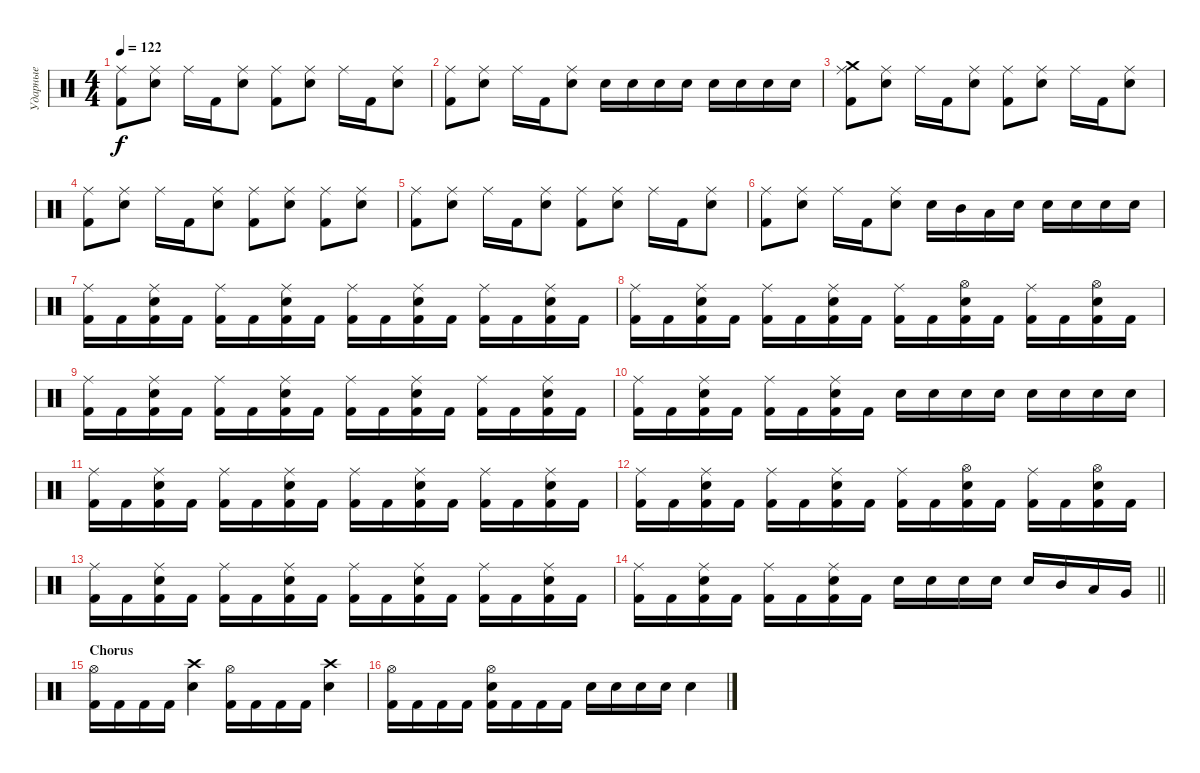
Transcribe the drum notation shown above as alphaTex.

\track ("Ударные" "Ударные") {instrument percussion}
\staff {score}
\articulation defaults
\ts (4 4)
\tempo 122
\clef neutral
\ks c
("Kick (hit) 2" "Ride (middle)").8{dy f} ("Electric Snare (hit)" "Ride (middle)").8 "Ride (middle)".16 "Kick (hit) 2".16 ("Electric Snare (hit)" "Ride (middle)").8 ("Kick (hit) 2" "Ride (middle)").8 ("Electric Snare (hit)" "Ride (middle)").8 "Ride (middle)".16 "Kick (hit) 2".16 ("Electric Snare (hit)" "Ride (middle)").8 |
("Kick (hit) 2" "Ride (middle)").8 ("Electric Snare (hit)" "Ride (middle)").8 "Ride (middle)".16 "Kick (hit) 2".16 ("Electric Snare (hit)" "Ride (middle)").8 "Electric Snare (hit)".16 "Electric Snare (hit)".16 "Electric Snare (hit)".16 "Electric Snare (hit)".16 "Electric Snare (hit)".16 "Electric Snare (hit)".16 "Electric Snare (hit)".16 "Electric Snare (hit)".16 |
("Kick (hit) 2" "Ride (middle)" "Crash medium (hit)").8 ("Electric Snare (hit)" "Ride (middle)").8 "Ride (middle)".16 "Kick (hit) 2".16 ("Electric Snare (hit)" "Ride (middle)").8 ("Kick (hit) 2" "Ride (middle)").8 ("Electric Snare (hit)" "Ride (middle)").8 "Ride (middle)".16 "Kick (hit) 2".16 ("Electric Snare (hit)" "Ride (middle)").8 |
("Kick (hit) 2" "Ride (middle)").8 ("Electric Snare (hit)" "Ride (middle)").8 "Ride (middle)".16 "Kick (hit) 2".16 ("Electric Snare (hit)" "Ride (middle)").8 ("Kick (hit) 2" "Ride (middle)").8 ("Electric Snare (hit)" "Ride (middle)").8 ("Kick (hit) 2" "Ride (middle)").8 ("Electric Snare (hit)" "Ride (middle)").8 |
("Kick (hit) 2" "Ride (middle)").8 ("Electric Snare (hit)" "Ride (middle)").8 "Ride (middle)".16 "Kick (hit) 2".16 ("Electric Snare (hit)" "Ride (middle)").8 ("Kick (hit) 2" "Ride (middle)").8 ("Electric Snare (hit)" "Ride (middle)").8 "Ride (middle)".16 "Kick (hit) 2".16 ("Electric Snare (hit)" "Ride (middle)").8 |
("Kick (hit) 2" "Ride (middle)").8 ("Electric Snare (hit)" "Ride (middle)").8 "Ride (middle)".16 "Kick (hit) 2".16 ("Electric Snare (hit)" "Ride (middle)").8 "Electric Snare (hit)".16 "Mid Tom (hit)".16 "Low Tom (hit)".16 "Electric Snare (hit)".16 "Electric Snare (hit)".16 "Electric Snare (hit)".16 "Electric Snare (hit)".16 "Electric Snare (hit)".16 |
("Kick (hit) 2" "Ride (middle)").16 "Kick (hit) 2".16 ("Kick (hit) 2" "Electric Snare (hit)" "Ride (middle)").16 "Kick (hit) 2".16 ("Kick (hit) 2" "Ride (middle)").16 "Kick (hit) 2".16 ("Kick (hit) 2" "Electric Snare (hit)" "Ride (middle)").16 "Kick (hit) 2".16 ("Kick (hit) 2" "Ride (middle)").16 "Kick (hit) 2".16 ("Kick (hit) 2" "Electric Snare (hit)" "Ride (middle)").16 "Kick (hit) 2".16 ("Kick (hit) 2" "Ride (middle)").16 "Kick (hit) 2".16 ("Kick (hit) 2" "Electric Snare (hit)" "Ride (middle)").16 "Kick (hit) 2".16 |
("Kick (hit) 2" "Ride (middle)").16 "Kick (hit) 2".16 ("Kick (hit) 2" "Electric Snare (hit)" "Ride (middle)").16 "Kick (hit) 2".16 ("Kick (hit) 2" "Ride (middle)").16 "Kick (hit) 2".16 ("Kick (hit) 2" "Electric Snare (hit)" "Ride (middle)").16 "Kick (hit) 2".16 ("Kick (hit) 2" "Ride (middle)").16 "Kick (hit) 2".16 ("Kick (hit) 2" "Electric Snare (hit)" "Hi-Hat (open)").16 "Kick (hit) 2".16 ("Kick (hit) 2" "Ride (middle)").16 "Kick (hit) 2".16 ("Kick (hit) 2" "Electric Snare (hit)" "Hi-Hat (open)").16 "Kick (hit) 2".16 |
("Kick (hit) 2" "Ride (middle)").16 "Kick (hit) 2".16 ("Kick (hit) 2" "Electric Snare (hit)" "Ride (middle)").16 "Kick (hit) 2".16 ("Kick (hit) 2" "Ride (middle)").16 "Kick (hit) 2".16 ("Kick (hit) 2" "Electric Snare (hit)" "Ride (middle)").16 "Kick (hit) 2".16 ("Kick (hit) 2" "Ride (middle)").16 "Kick (hit) 2".16 ("Kick (hit) 2" "Electric Snare (hit)" "Ride (middle)").16 "Kick (hit) 2".16 ("Kick (hit) 2" "Ride (middle)").16 "Kick (hit) 2".16 ("Kick (hit) 2" "Electric Snare (hit)" "Ride (middle)").16 "Kick (hit) 2".16 |
("Kick (hit) 2" "Ride (middle)").16 "Kick (hit) 2".16 ("Kick (hit) 2" "Electric Snare (hit)" "Ride (middle)").16 "Kick (hit) 2".16 ("Kick (hit) 2" "Ride (middle)").16 "Kick (hit) 2".16 ("Kick (hit) 2" "Electric Snare (hit)" "Ride (middle)").16 "Kick (hit) 2".16 "Electric Snare (hit)".16 "Electric Snare (hit)".16 "Electric Snare (hit)".16 "Electric Snare (hit)".16 "Electric Snare (hit)".16 "Electric Snare (hit)".16 "Electric Snare (hit)".16 "Electric Snare (hit)".16 |
("Kick (hit) 2" "Ride (middle)").16 "Kick (hit) 2".16 ("Kick (hit) 2" "Electric Snare (hit)" "Ride (middle)").16 "Kick (hit) 2".16 ("Kick (hit) 2" "Ride (middle)").16 "Kick (hit) 2".16 ("Kick (hit) 2" "Electric Snare (hit)" "Ride (middle)").16 "Kick (hit) 2".16 ("Kick (hit) 2" "Ride (middle)").16 "Kick (hit) 2".16 ("Kick (hit) 2" "Electric Snare (hit)" "Ride (middle)").16 "Kick (hit) 2".16 ("Kick (hit) 2" "Ride (middle)").16 "Kick (hit) 2".16 ("Kick (hit) 2" "Electric Snare (hit)" "Ride (middle)").16 "Kick (hit) 2".16 |
("Kick (hit) 2" "Ride (middle)").16 "Kick (hit) 2".16 ("Kick (hit) 2" "Electric Snare (hit)" "Ride (middle)").16 "Kick (hit) 2".16 ("Kick (hit) 2" "Ride (middle)").16 "Kick (hit) 2".16 ("Kick (hit) 2" "Electric Snare (hit)" "Ride (middle)").16 "Kick (hit) 2".16 ("Kick (hit) 2" "Ride (middle)").16 "Kick (hit) 2".16 ("Kick (hit) 2" "Electric Snare (hit)" "Hi-Hat (open)").16 "Kick (hit) 2".16 ("Kick (hit) 2" "Ride (middle)").16 "Kick (hit) 2".16 ("Kick (hit) 2" "Electric Snare (hit)" "Hi-Hat (open)").16 "Kick (hit) 2".16 |
("Kick (hit) 2" "Ride (middle)").16 "Kick (hit) 2".16 ("Kick (hit) 2" "Electric Snare (hit)" "Ride (middle)").16 "Kick (hit) 2".16 ("Kick (hit) 2" "Ride (middle)").16 "Kick (hit) 2".16 ("Kick (hit) 2" "Electric Snare (hit)" "Ride (middle)").16 "Kick (hit) 2".16 ("Kick (hit) 2" "Ride (middle)").16 "Kick (hit) 2".16 ("Kick (hit) 2" "Electric Snare (hit)" "Ride (middle)").16 "Kick (hit) 2".16 ("Kick (hit) 2" "Ride (middle)").16 "Kick (hit) 2".16 ("Kick (hit) 2" "Electric Snare (hit)" "Ride (middle)").16 "Kick (hit) 2".16 |
\barLineRight lightlight
("Kick (hit) 2" "Ride (middle)").16 "Kick (hit) 2".16 ("Kick (hit) 2" "Electric Snare (hit)" "Ride (middle)").16 "Kick (hit) 2".16 ("Kick (hit) 2" "Ride (middle)").16 "Kick (hit) 2".16 ("Kick (hit) 2" "Electric Snare (hit)" "Ride (middle)").16 "Kick (hit) 2".16 "Electric Snare (hit)".16 "Electric Snare (hit)".16 "Electric Snare (hit)".16 "Electric Snare (hit)".16 "Electric Snare (hit)".16 "Mid Tom (hit)".16 "Low Tom (hit)".16 "Very Low Tom (hit)".16 |
\section ("" "Chorus")
("Kick (hit) 2" "Hi-Hat (open)").16 "Kick (hit) 2".16 "Kick (hit) 2".16 "Kick (hit) 2".16 ("Electric Snare (hit)" "Crash high (hit)").4 ("Kick (hit) 2" "Hi-Hat (open)").16 "Kick (hit) 2".16 "Kick (hit) 2".16 "Kick (hit) 2".16 ("Electric Snare (hit)" "Crash high (hit)").4 |
("Kick (hit) 2" "Hi-Hat (open)").16 "Kick (hit) 2".16 "Kick (hit) 2".16 "Kick (hit) 2".16 ("Kick (hit) 2" "Electric Snare (hit)" "Hi-Hat (open)").16 "Kick (hit) 2".16 "Kick (hit) 2".16 "Kick (hit) 2".16 "Electric Snare (hit)".16 "Electric Snare (hit)".16 "Electric Snare (hit)".16 "Electric Snare (hit)".16 "Electric Snare (hit)".4
